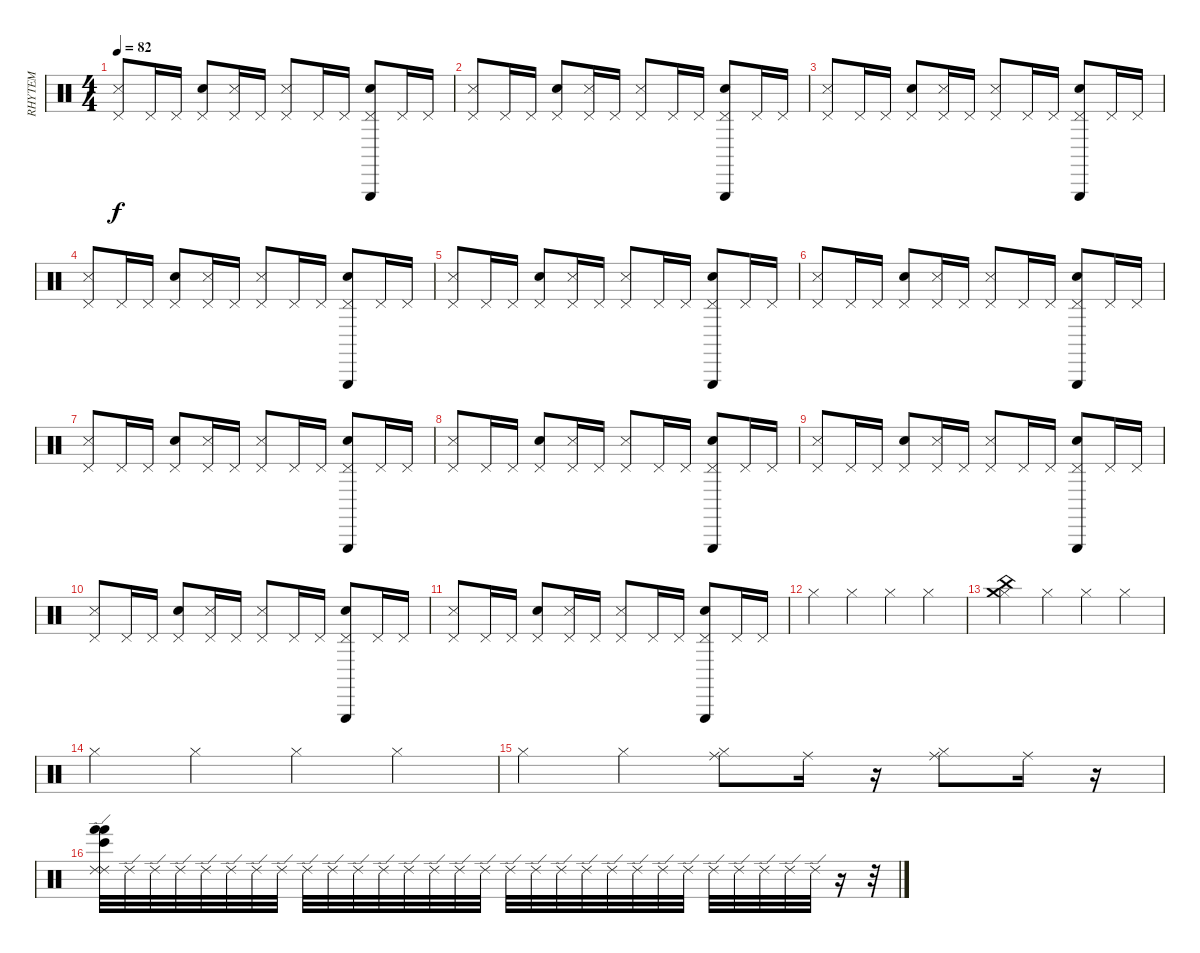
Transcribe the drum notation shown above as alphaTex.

\track ("RHYTEM" "RHYTEM") {instrument percussion}
\staff {score}
\articulation defaults
\ts (4 4)
\tempo 82
\clef neutral
\ks c
("Pedal Hi-Hat (hit)" "Metronome (hit)").8{dy f} "Pedal Hi-Hat (hit)".16 "Pedal Hi-Hat (hit)".16 ("Electric Snare (hit)" "Pedal Hi-Hat (hit)").8 ("Pedal Hi-Hat (hit)" "Metronome (hit)").16 "Pedal Hi-Hat (hit)".16 ("Pedal Hi-Hat (hit)" "Metronome (hit)").8 "Pedal Hi-Hat (hit)".16 "Pedal Hi-Hat (hit)".16 ("Triangle (hit)" "Electric Snare (hit)" "Pedal Hi-Hat (hit)").8 "Pedal Hi-Hat (hit)".16 "Pedal Hi-Hat (hit)".16 |
("Pedal Hi-Hat (hit)" "Metronome (hit)").8 "Pedal Hi-Hat (hit)".16 "Pedal Hi-Hat (hit)".16 ("Electric Snare (hit)" "Pedal Hi-Hat (hit)").8 ("Pedal Hi-Hat (hit)" "Metronome (hit)").16 "Pedal Hi-Hat (hit)".16 ("Pedal Hi-Hat (hit)" "Metronome (hit)").8 "Pedal Hi-Hat (hit)".16 "Pedal Hi-Hat (hit)".16 ("Triangle (hit)" "Electric Snare (hit)" "Pedal Hi-Hat (hit)").8 "Pedal Hi-Hat (hit)".16 "Pedal Hi-Hat (hit)".16 |
("Pedal Hi-Hat (hit)" "Metronome (hit)").8 "Pedal Hi-Hat (hit)".16 "Pedal Hi-Hat (hit)".16 ("Electric Snare (hit)" "Pedal Hi-Hat (hit)").8 ("Pedal Hi-Hat (hit)" "Metronome (hit)").16 "Pedal Hi-Hat (hit)".16 ("Pedal Hi-Hat (hit)" "Metronome (hit)").8 "Pedal Hi-Hat (hit)".16 "Pedal Hi-Hat (hit)".16 ("Triangle (hit)" "Electric Snare (hit)" "Pedal Hi-Hat (hit)").8 "Pedal Hi-Hat (hit)".16 "Pedal Hi-Hat (hit)".16 |
("Pedal Hi-Hat (hit)" "Metronome (hit)").8 "Pedal Hi-Hat (hit)".16 "Pedal Hi-Hat (hit)".16 ("Electric Snare (hit)" "Pedal Hi-Hat (hit)").8 ("Pedal Hi-Hat (hit)" "Metronome (hit)").16 "Pedal Hi-Hat (hit)".16 ("Pedal Hi-Hat (hit)" "Metronome (hit)").8 "Pedal Hi-Hat (hit)".16 "Pedal Hi-Hat (hit)".16 ("Triangle (hit)" "Electric Snare (hit)" "Pedal Hi-Hat (hit)").8 "Pedal Hi-Hat (hit)".16 "Pedal Hi-Hat (hit)".16 |
("Pedal Hi-Hat (hit)" "Metronome (hit)").8 "Pedal Hi-Hat (hit)".16 "Pedal Hi-Hat (hit)".16 ("Electric Snare (hit)" "Pedal Hi-Hat (hit)").8 ("Pedal Hi-Hat (hit)" "Metronome (hit)").16 "Pedal Hi-Hat (hit)".16 ("Pedal Hi-Hat (hit)" "Metronome (hit)").8 "Pedal Hi-Hat (hit)".16 "Pedal Hi-Hat (hit)".16 ("Triangle (hit)" "Electric Snare (hit)" "Pedal Hi-Hat (hit)").8 "Pedal Hi-Hat (hit)".16 "Pedal Hi-Hat (hit)".16 |
("Pedal Hi-Hat (hit)" "Metronome (hit)").8 "Pedal Hi-Hat (hit)".16 "Pedal Hi-Hat (hit)".16 ("Electric Snare (hit)" "Pedal Hi-Hat (hit)").8 ("Pedal Hi-Hat (hit)" "Metronome (hit)").16 "Pedal Hi-Hat (hit)".16 ("Pedal Hi-Hat (hit)" "Metronome (hit)").8 "Pedal Hi-Hat (hit)".16 "Pedal Hi-Hat (hit)".16 ("Triangle (hit)" "Electric Snare (hit)" "Pedal Hi-Hat (hit)").8 "Pedal Hi-Hat (hit)".16 "Pedal Hi-Hat (hit)".16 |
("Pedal Hi-Hat (hit)" "Metronome (hit)").8 "Pedal Hi-Hat (hit)".16 "Pedal Hi-Hat (hit)".16 ("Electric Snare (hit)" "Pedal Hi-Hat (hit)").8 ("Pedal Hi-Hat (hit)" "Metronome (hit)").16 "Pedal Hi-Hat (hit)".16 ("Pedal Hi-Hat (hit)" "Metronome (hit)").8 "Pedal Hi-Hat (hit)".16 "Pedal Hi-Hat (hit)".16 ("Triangle (hit)" "Electric Snare (hit)" "Pedal Hi-Hat (hit)").8 "Pedal Hi-Hat (hit)".16 "Pedal Hi-Hat (hit)".16 |
("Pedal Hi-Hat (hit)" "Metronome (hit)").8 "Pedal Hi-Hat (hit)".16 "Pedal Hi-Hat (hit)".16 ("Electric Snare (hit)" "Pedal Hi-Hat (hit)").8 ("Pedal Hi-Hat (hit)" "Metronome (hit)").16 "Pedal Hi-Hat (hit)".16 ("Pedal Hi-Hat (hit)" "Metronome (hit)").8 "Pedal Hi-Hat (hit)".16 "Pedal Hi-Hat (hit)".16 ("Triangle (hit)" "Electric Snare (hit)" "Pedal Hi-Hat (hit)").8 "Pedal Hi-Hat (hit)".16 "Pedal Hi-Hat (hit)".16 |
("Pedal Hi-Hat (hit)" "Metronome (hit)").8 "Pedal Hi-Hat (hit)".16 "Pedal Hi-Hat (hit)".16 ("Electric Snare (hit)" "Pedal Hi-Hat (hit)").8 ("Pedal Hi-Hat (hit)" "Metronome (hit)").16 "Pedal Hi-Hat (hit)".16 ("Pedal Hi-Hat (hit)" "Metronome (hit)").8 "Pedal Hi-Hat (hit)".16 "Pedal Hi-Hat (hit)".16 ("Triangle (hit)" "Electric Snare (hit)" "Pedal Hi-Hat (hit)").8 "Pedal Hi-Hat (hit)".16 "Pedal Hi-Hat (hit)".16 |
("Pedal Hi-Hat (hit)" "Metronome (hit)").8 "Pedal Hi-Hat (hit)".16 "Pedal Hi-Hat (hit)".16 ("Electric Snare (hit)" "Pedal Hi-Hat (hit)").8 ("Pedal Hi-Hat (hit)" "Metronome (hit)").16 "Pedal Hi-Hat (hit)".16 ("Pedal Hi-Hat (hit)" "Metronome (hit)").8 "Pedal Hi-Hat (hit)".16 "Pedal Hi-Hat (hit)".16 ("Triangle (hit)" "Electric Snare (hit)" "Pedal Hi-Hat (hit)").8 "Pedal Hi-Hat (hit)".16 "Pedal Hi-Hat (hit)".16 |
("Pedal Hi-Hat (hit)" "Metronome (hit)").8 "Pedal Hi-Hat (hit)".16 "Pedal Hi-Hat (hit)".16 ("Electric Snare (hit)" "Pedal Hi-Hat (hit)").8 ("Pedal Hi-Hat (hit)" "Metronome (hit)").16 "Pedal Hi-Hat (hit)".16 ("Pedal Hi-Hat (hit)" "Metronome (hit)").8 "Pedal Hi-Hat (hit)".16 "Pedal Hi-Hat (hit)".16 ("Triangle (hit)" "Electric Snare (hit)" "Pedal Hi-Hat (hit)").8 "Pedal Hi-Hat (hit)".16 "Pedal Hi-Hat (hit)".16 |
"Hi-Hat (closed)".4 "Hi-Hat (closed)".4 "Hi-Hat (closed)".4 "Hi-Hat (closed)".4 |
("Hi-Hat (closed)" "China (hit)" "Crash medium (hit)").4 "Hi-Hat (closed)".4 "Hi-Hat (closed)".4 "Hi-Hat (closed)".4 |
"Hi-Hat (closed)".4 "Hi-Hat (closed)".4 "Hi-Hat (closed)".4 "Hi-Hat (closed)".4 |
"Hi-Hat (closed)".4 "Hi-Hat (closed)".4 ("Ride (middle)" "Hi-Hat (closed)").8 "Ride (middle)".16 r.16 ("Ride (middle)" "Hi-Hat (closed)").8 "Ride (middle)".16 r.16 |
("Hand (hit)" "Hand (hit)" "Bongo High (hit)" "Ride (edge) 2" "Ride (edge) 2").32 "Ride (edge) 2".32 "Ride (edge) 2".32 "Ride (edge) 2".32 "Ride (edge) 2".32 "Ride (edge) 2".32 "Ride (edge) 2".32 "Ride (edge) 2".32 "Ride (edge) 2".32 "Ride (edge) 2".32 "Ride (edge) 2".32 "Ride (edge) 2".32 "Ride (edge) 2".32 "Ride (edge) 2".32 "Ride (edge) 2".32 "Ride (edge) 2".32 "Ride (edge) 2".32 "Ride (edge) 2".32 "Ride (edge) 2".32 "Ride (edge) 2".32 "Ride (edge) 2".32 "Ride (edge) 2".32 "Ride (edge) 2".32 "Ride (edge) 2".32 "Ride (edge) 2".32 "Ride (edge) 2".32 "Ride (edge) 2".32 "Ride (edge) 2".32 "Ride (edge) 2".32 r.16 r.32
